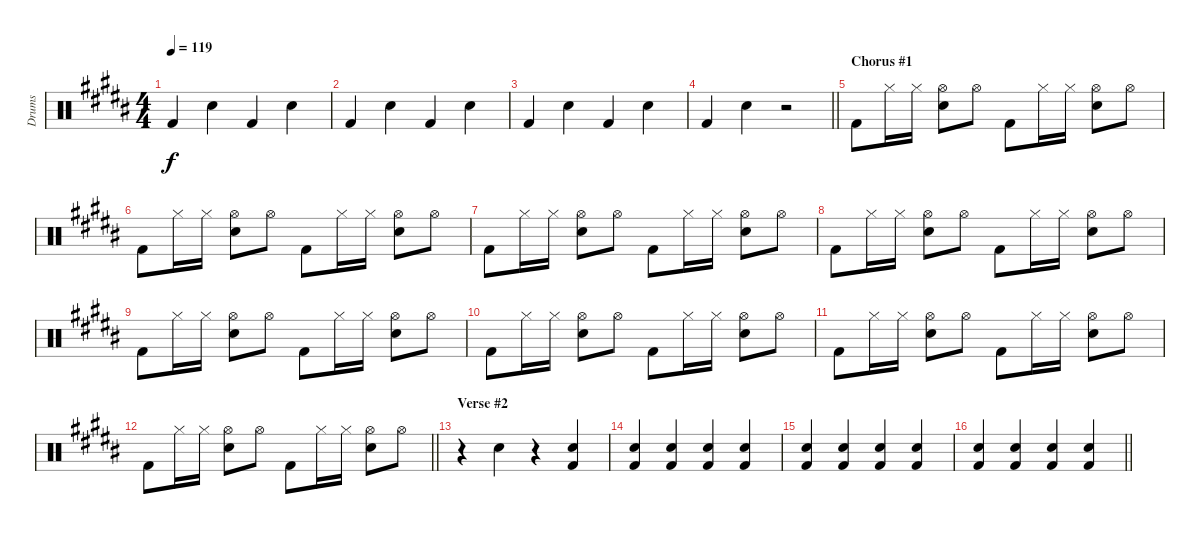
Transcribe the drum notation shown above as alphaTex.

\track ("Drums" "Drums") {instrument percussion}
\staff {score}
\articulation defaults
\ts (4 4)
\tempo 119
\clef neutral
\ks b "Kick (hit) 2".4{dy f} "Snare (hit) 2".4 "Kick (hit) 2".4 "Snare (hit) 2".4
|
"Kick (hit) 2".4 "Snare (hit) 2".4 "Kick (hit) 2".4 "Snare (hit) 2".4 |
"Kick (hit) 2".4 "Snare (hit) 2".4 "Kick (hit) 2".4 "Snare (hit) 2".4 |
\barLineRight lightlight "Kick (hit) 2".4 "Snare (hit) 2".4
r.2 |
\section ("" "Chorus #1")
"Kick (hit) 2".8 "Hi-Hat (closed)".16 "Hi-Hat (closed)".16 ("Snare (hit) 2" "Hi-Hat (open)").8 "Hi-Hat (open)".8 "Kick (hit) 2".8 "Hi-Hat (closed)".16 "Hi-Hat (closed)".16 ("Snare (hit) 2" "Hi-Hat (open)").8 "Hi-Hat (open)".8 |
"Kick (hit) 2".8 "Hi-Hat (closed)".16 "Hi-Hat (closed)".16 ("Snare (hit) 2" "Hi-Hat (open)").8 "Hi-Hat (open)".8 "Kick (hit) 2".8 "Hi-Hat (closed)".16 "Hi-Hat (closed)".16 ("Snare (hit) 2" "Hi-Hat (open)").8 "Hi-Hat (open)".8 |
"Kick (hit) 2".8 "Hi-Hat (closed)".16 "Hi-Hat (closed)".16 ("Snare (hit) 2" "Hi-Hat (open)").8 "Hi-Hat (open)".8 "Kick (hit) 2".8 "Hi-Hat (closed)".16 "Hi-Hat (closed)".16 ("Snare (hit) 2" "Hi-Hat (open)").8 "Hi-Hat (open)".8 |
"Kick (hit) 2".8 "Hi-Hat (closed)".16 "Hi-Hat (closed)".16 ("Snare (hit) 2" "Hi-Hat (open)").8 "Hi-Hat (open)".8 "Kick (hit) 2".8 "Hi-Hat (closed)".16 "Hi-Hat (closed)".16 ("Snare (hit) 2" "Hi-Hat (open)").8 "Hi-Hat (open)".8 |
"Kick (hit) 2".8 "Hi-Hat (closed)".16 "Hi-Hat (closed)".16 ("Snare (hit) 2" "Hi-Hat (open)").8 "Hi-Hat (open)".8 "Kick (hit) 2".8 "Hi-Hat (closed)".16 "Hi-Hat (closed)".16 ("Snare (hit) 2" "Hi-Hat (open)").8 "Hi-Hat (open)".8 |
"Kick (hit) 2".8 "Hi-Hat (closed)".16 "Hi-Hat (closed)".16 ("Snare (hit) 2" "Hi-Hat (open)").8 "Hi-Hat (open)".8 "Kick (hit) 2".8 "Hi-Hat (closed)".16 "Hi-Hat (closed)".16 ("Snare (hit) 2" "Hi-Hat (open)").8 "Hi-Hat (open)".8 |
"Kick (hit) 2".8 "Hi-Hat (closed)".16 "Hi-Hat (closed)".16 ("Snare (hit) 2" "Hi-Hat (open)").8 "Hi-Hat (open)".8 "Kick (hit) 2".8 "Hi-Hat (closed)".16 "Hi-Hat (closed)".16 ("Snare (hit) 2" "Hi-Hat (open)").8 "Hi-Hat (open)".8 |
\barLineRight lightlight "Kick (hit) 2".8 "Hi-Hat (closed)".16 "Hi-Hat (closed)".16
("Snare (hit) 2" "Hi-Hat (open)").8 "Hi-Hat (open)".8 "Kick (hit) 2".8 "Hi-Hat (closed)".16 "Hi-Hat (closed)".16 ("Snare (hit) 2" "Hi-Hat (open)").8 "Hi-Hat (open)".8 |
\section ("" "Verse #2")
r.4 "Hand Clap (hit)".4 r.4 ("Hand Clap (hit)" "Kick (hit) 2").4 |
("Kick (hit) 2" "Electric Snare (hit)").4 ("Kick (hit) 2" "Snare (hit) 2").4 ("Kick (hit) 2" "Electric Snare (hit)").4 ("Kick (hit) 2" "Snare (hit) 2").4 |
("Kick (hit) 2" "Electric Snare (hit)").4 ("Kick (hit) 2" "Snare (hit) 2").4 ("Kick (hit) 2" "Electric Snare (hit)").4 ("Kick (hit) 2" "Snare (hit) 2").4 |
\barLineRight lightlight
("Kick (hit) 2" "Electric Snare (hit)").4 ("Kick (hit) 2" "Snare (hit) 2").4 ("Kick (hit) 2" "Electric Snare (hit)").4 ("Kick (hit) 2" "Snare (hit) 2").4
